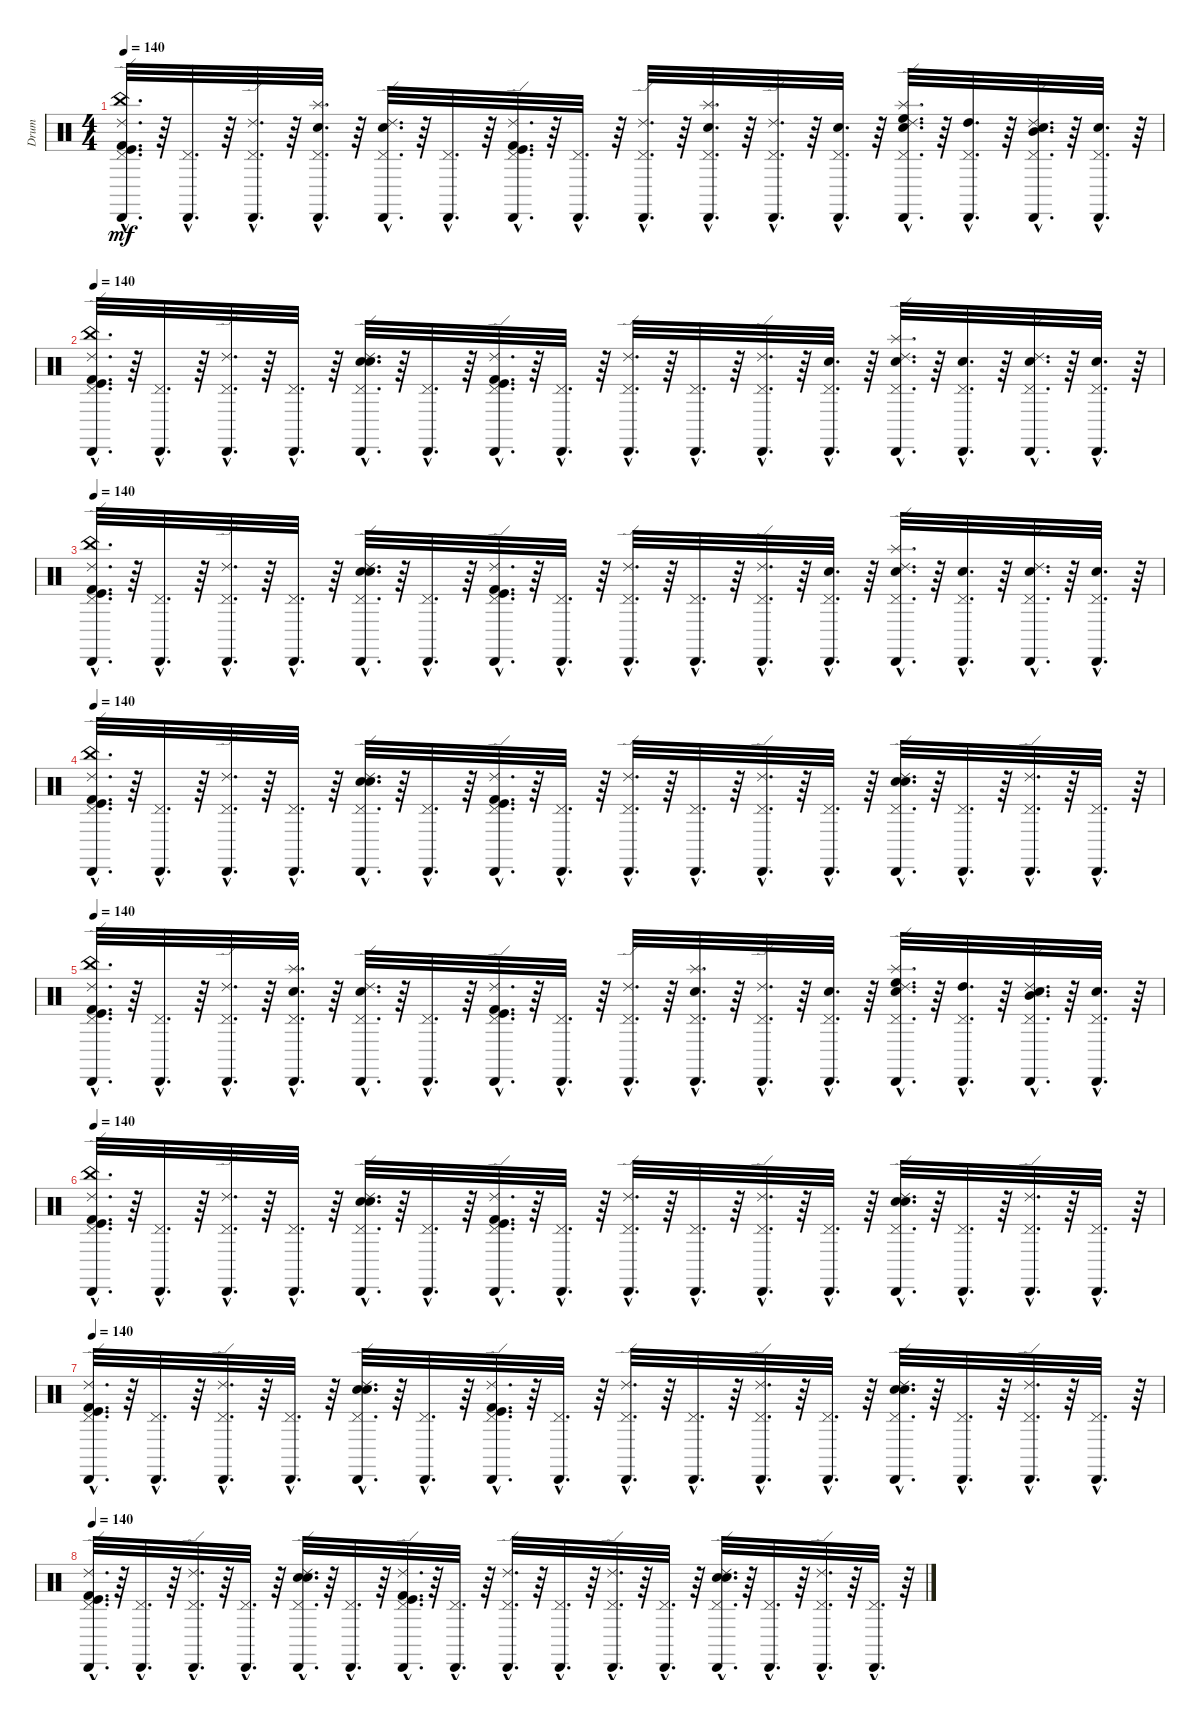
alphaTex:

\track ("Drum" "Drum") {instrument percussion}
\staff {score}
\articulation defaults
\ts (4 4)
\tempo 140
\clef neutral
\ks c
("China (hit)"{hac} "Cabasa (hit)"{hac} "Ride (edge) 2"{hac} "Kick (hit) 2"{hac} "Kick (hit)"{hac} "Pedal Hi-Hat (hit)"{hac}).32{d dy mf} r.64 ("Pedal Hi-Hat (hit)"{hac} "Cabasa (hit)"{hac}).32{d} r.64 ("Ride (edge) 2"{hac} "Cabasa (hit)"{hac} "Pedal Hi-Hat (hit)"{hac}).32{d} r.64 ("Splash (hit)"{hac} "Snare (hit) 2"{hac} "Pedal Hi-Hat (hit)"{hac} "Cabasa (hit)"{hac}).32{d} r.64 ("Snare (hit) 2"{hac} "Ride (edge) 2"{hac} "Cabasa (hit)"{hac} "Pedal Hi-Hat (hit)"{hac}).32{d} r.64 ("Cabasa (hit)"{hac} "Pedal Hi-Hat (hit)"{hac}).32{d} r.64 ("Ride (edge) 2"{hac} "Cabasa (hit)"{hac} "Kick (hit)"{hac} "Kick (hit) 2"{hac} "Pedal Hi-Hat (hit)"{hac}).32{d} r.64 ("Pedal Hi-Hat (hit)"{hac} "Cabasa (hit)"{hac}).32{d} r.64 ("Cabasa (hit)"{hac} "Pedal Hi-Hat (hit)"{hac} "Ride (edge) 2"{hac}).32{d} r.64 ("Splash (hit)"{hac} "Snare (hit) 2"{hac} "Pedal Hi-Hat (hit)"{hac} "Cabasa (hit)"{hac}).32{d} r.64 ("Pedal Hi-Hat (hit)"{hac} "Cabasa (hit)"{hac} "Ride (edge) 2"{hac}).32{d} r.64 ("Snare (hit) 2"{hac} "Pedal Hi-Hat (hit)"{hac} "Cabasa (hit)"{hac}).32{d} r.64 ("Splash (hit)"{hac} "High Floor Tom (hit)"{hac} "Snare (hit) 2"{hac} "Ride (edge) 2"{hac} "Cabasa (hit)"{hac} "Pedal Hi-Hat (hit)"{hac}).32{d} r.64 ("High Tom (hit)"{hac} "Pedal Hi-Hat (hit)"{hac} "Cabasa (hit)"{hac}).32{d} r.64 ("Mid Tom (hit)"{hac} "Snare (hit) 2"{hac} "Ride (edge) 2"{hac} "Cabasa (hit)"{hac} "Pedal Hi-Hat (hit)"{hac}).32{d} r.64 ("Snare (hit) 2"{hac} "Pedal Hi-Hat (hit)"{hac} "Cabasa (hit)"{hac}).32{d} r.64 |
\tempo 140
("China (hit)"{hac} "Cabasa (hit)"{hac} "Pedal Hi-Hat (hit)"{hac} "Ride (edge) 2"{hac} "Kick (hit) 2"{hac} "Kick (hit)"{hac}).32{d} r.64 ("Cabasa (hit)"{hac} "Pedal Hi-Hat (hit)"{hac}).32{d} r.64 ("Pedal Hi-Hat (hit)"{hac} "Ride (edge) 2"{hac} "Cabasa (hit)"{hac}).32{d} r.64 ("Pedal Hi-Hat (hit)"{hac} "Cabasa (hit)"{hac}).32{d} r.64 ("Pedal Hi-Hat (hit)"{hac} "Ride (edge) 2"{hac} "Snare (hit) 2"{hac} "Cabasa (hit)"{hac} "Electric Snare (hit)"{hac}).32{d} r.64 ("Pedal Hi-Hat (hit)"{hac} "Cabasa (hit)"{hac}).32{d} r.64 ("Kick (hit)"{hac} "Pedal Hi-Hat (hit)"{hac} "Kick (hit) 2"{hac} "Cabasa (hit)"{hac} "Ride (edge) 2"{hac}).32{d} r.64 ("Pedal Hi-Hat (hit)"{hac} "Cabasa (hit)"{hac}).32{d} r.64 ("Cabasa (hit)"{hac} "Ride (edge) 2"{hac} "Pedal Hi-Hat (hit)"{hac}).32{d} r.64 ("Cabasa (hit)"{hac} "Pedal Hi-Hat (hit)"{hac}).32{d} r.64 ("Ride (edge) 2"{hac} "Pedal Hi-Hat (hit)"{hac} "Cabasa (hit)"{hac}).32{d} r.64 ("Snare (hit) 2"{hac} "Cabasa (hit)"{hac} "Pedal Hi-Hat (hit)"{hac}).32{d} r.64 ("Ride (edge) 2"{hac} "Pedal Hi-Hat (hit)"{hac} "Cabasa (hit)"{hac} "Snare (hit) 2"{hac} "Splash (hit)"{hac}).32{d} r.64 ("Snare (hit) 2"{hac} "Pedal Hi-Hat (hit)"{hac} "Cabasa (hit)"{hac}).32{d} r.64 ("Snare (hit) 2"{hac} "Pedal Hi-Hat (hit)"{hac} "Cabasa (hit)"{hac} "Ride (edge) 2"{hac}).32{d} r.64 ("Snare (hit) 2"{hac} "Pedal Hi-Hat (hit)"{hac} "Cabasa (hit)"{hac}).32{d} r.64 |
\tempo 140
("Pedal Hi-Hat (hit)"{hac} "Kick (hit) 2"{hac} "Ride (edge) 2"{hac} "Kick (hit)"{hac} "Cabasa (hit)"{hac} "China (hit)"{hac}).32{d} r.64 ("Cabasa (hit)"{hac} "Pedal Hi-Hat (hit)"{hac}).32{d} r.64 ("Ride (edge) 2"{hac} "Pedal Hi-Hat (hit)"{hac} "Cabasa (hit)"{hac}).32{d} r.64 ("Cabasa (hit)"{hac} "Pedal Hi-Hat (hit)"{hac}).32{d} r.64 ("Pedal Hi-Hat (hit)"{hac} "Snare (hit) 2"{hac} "Cabasa (hit)"{hac} "Electric Snare (hit)"{hac} "Ride (edge) 2"{hac}).32{d} r.64 ("Cabasa (hit)"{hac} "Pedal Hi-Hat (hit)"{hac}).32{d} r.64 ("Kick (hit) 2"{hac} "Pedal Hi-Hat (hit)"{hac} "Cabasa (hit)"{hac} "Kick (hit)"{hac} "Ride (edge) 2"{hac}).32{d} r.64 ("Cabasa (hit)"{hac} "Pedal Hi-Hat (hit)"{hac}).32{d} r.64 ("Cabasa (hit)"{hac} "Pedal Hi-Hat (hit)"{hac} "Ride (edge) 2"{hac}).32{d} r.64 ("Pedal Hi-Hat (hit)"{hac} "Cabasa (hit)"{hac}).32{d} r.64 ("Cabasa (hit)"{hac} "Ride (edge) 2"{hac} "Pedal Hi-Hat (hit)"{hac}).32{d} r.64 ("Snare (hit) 2"{hac} "Pedal Hi-Hat (hit)"{hac} "Cabasa (hit)"{hac}).32{d} r.64 ("Pedal Hi-Hat (hit)"{hac} "Ride (edge) 2"{hac} "Cabasa (hit)"{hac} "Snare (hit) 2"{hac} "Splash (hit)"{hac}).32{d} r.64 ("Snare (hit) 2"{hac} "Cabasa (hit)"{hac} "Pedal Hi-Hat (hit)"{hac}).32{d} r.64 ("Ride (edge) 2"{hac} "Snare (hit) 2"{hac} "Cabasa (hit)"{hac} "Pedal Hi-Hat (hit)"{hac}).32{d} r.64 ("Snare (hit) 2"{hac} "Cabasa (hit)"{hac} "Pedal Hi-Hat (hit)"{hac}).32{d} r.64 |
\tempo 140
("Cabasa (hit)"{hac} "Pedal Hi-Hat (hit)"{hac} "Ride (edge) 2"{hac} "Kick (hit) 2"{hac} "Kick (hit)"{hac} "China (hit)"{hac}).32{d} r.64 ("Pedal Hi-Hat (hit)"{hac} "Cabasa (hit)"{hac}).32{d} r.64 ("Pedal Hi-Hat (hit)"{hac} "Cabasa (hit)"{hac} "Ride (edge) 2"{hac}).32{d} r.64 ("Pedal Hi-Hat (hit)"{hac} "Cabasa (hit)"{hac}).32{d} r.64 ("Cabasa (hit)"{hac} "Pedal Hi-Hat (hit)"{hac} "Ride (edge) 2"{hac} "Snare (hit) 2"{hac} "Electric Snare (hit)"{hac}).32{d} r.64 ("Pedal Hi-Hat (hit)"{hac} "Cabasa (hit)"{hac}).32{d} r.64 ("Kick (hit) 2"{hac} "Cabasa (hit)"{hac} "Ride (edge) 2"{hac} "Kick (hit)"{hac} "Pedal Hi-Hat (hit)"{hac}).32{d} r.64 ("Pedal Hi-Hat (hit)"{hac} "Cabasa (hit)"{hac}).32{d} r.64 ("Pedal Hi-Hat (hit)"{hac} "Ride (edge) 2"{hac} "Cabasa (hit)"{hac}).32{d} r.64 ("Pedal Hi-Hat (hit)"{hac} "Cabasa (hit)"{hac}).32{d} r.64 ("Pedal Hi-Hat (hit)"{hac} "Cabasa (hit)"{hac} "Ride (edge) 2"{hac}).32{d} r.64 ("Pedal Hi-Hat (hit)"{hac} "Cabasa (hit)"{hac}).32{d} r.64 ("Ride (edge) 2"{hac} "Cabasa (hit)"{hac} "Pedal Hi-Hat (hit)"{hac} "Snare (hit) 2"{hac} "Electric Snare (hit)"{hac}).32{d} r.64 ("Pedal Hi-Hat (hit)"{hac} "Cabasa (hit)"{hac}).32{d} r.64 ("Pedal Hi-Hat (hit)"{hac} "Cabasa (hit)"{hac} "Ride (edge) 2"{hac}).32{d} r.64 ("Pedal Hi-Hat (hit)"{hac} "Cabasa (hit)"{hac}).32{d} r.64 |
\tempo 140
("Pedal Hi-Hat (hit)"{hac} "Kick (hit)"{hac} "Kick (hit) 2"{hac} "Ride (edge) 2"{hac} "Cabasa (hit)"{hac} "China (hit)"{hac}).32{d} r.64 ("Cabasa (hit)"{hac} "Pedal Hi-Hat (hit)"{hac}).32{d} r.64 ("Pedal Hi-Hat (hit)"{hac} "Cabasa (hit)"{hac} "Ride (edge) 2"{hac}).32{d} r.64 ("Cabasa (hit)"{hac} "Pedal Hi-Hat (hit)"{hac} "Snare (hit) 2"{hac} "Splash (hit)"{hac}).32{d} r.64 ("Pedal Hi-Hat (hit)"{hac} "Cabasa (hit)"{hac} "Ride (edge) 2"{hac} "Snare (hit) 2"{hac}).32{d} r.64 ("Pedal Hi-Hat (hit)"{hac} "Cabasa (hit)"{hac}).32{d} r.64 ("Pedal Hi-Hat (hit)"{hac} "Kick (hit) 2"{hac} "Kick (hit)"{hac} "Cabasa (hit)"{hac} "Ride (edge) 2"{hac}).32{d} r.64 ("Cabasa (hit)"{hac} "Pedal Hi-Hat (hit)"{hac}).32{d} r.64 ("Ride (edge) 2"{hac} "Pedal Hi-Hat (hit)"{hac} "Cabasa (hit)"{hac}).32{d} r.64 ("Cabasa (hit)"{hac} "Pedal Hi-Hat (hit)"{hac} "Snare (hit) 2"{hac} "Splash (hit)"{hac}).32{d} r.64 ("Ride (edge) 2"{hac} "Cabasa (hit)"{hac} "Pedal Hi-Hat (hit)"{hac}).32{d} r.64 ("Cabasa (hit)"{hac} "Pedal Hi-Hat (hit)"{hac} "Snare (hit) 2"{hac}).32{d} r.64 ("Pedal Hi-Hat (hit)"{hac} "Cabasa (hit)"{hac} "Ride (edge) 2"{hac} "Snare (hit) 2"{hac} "High Floor Tom (hit)"{hac} "Splash (hit)"{hac}).32{d} r.64 ("Cabasa (hit)"{hac} "Pedal Hi-Hat (hit)"{hac} "High Tom (hit)"{hac}).32{d} r.64 ("Pedal Hi-Hat (hit)"{hac} "Cabasa (hit)"{hac} "Ride (edge) 2"{hac} "Snare (hit) 2"{hac} "Mid Tom (hit)"{hac}).32{d} r.64 ("Cabasa (hit)"{hac} "Pedal Hi-Hat (hit)"{hac} "Snare (hit) 2"{hac}).32{d} r.64 |
\tempo 140
("China (hit)"{hac} "Kick (hit) 2"{hac} "Kick (hit)"{hac} "Ride (edge) 2"{hac} "Cabasa (hit)"{hac} "Pedal Hi-Hat (hit)"{hac}).32{d} r.64 ("Cabasa (hit)"{hac} "Pedal Hi-Hat (hit)"{hac}).32{d} r.64 ("Ride (edge) 2"{hac} "Cabasa (hit)"{hac} "Pedal Hi-Hat (hit)"{hac}).32{d} r.64 ("Cabasa (hit)"{hac} "Pedal Hi-Hat (hit)"{hac}).32{d} r.64 ("Snare (hit) 2"{hac} "Electric Snare (hit)"{hac} "Ride (edge) 2"{hac} "Cabasa (hit)"{hac} "Pedal Hi-Hat (hit)"{hac}).32{d} r.64 ("Cabasa (hit)"{hac} "Pedal Hi-Hat (hit)"{hac}).32{d} r.64 ("Kick (hit)"{hac} "Kick (hit) 2"{hac} "Ride (edge) 2"{hac} "Cabasa (hit)"{hac} "Pedal Hi-Hat (hit)"{hac}).32{d} r.64 ("Cabasa (hit)"{hac} "Pedal Hi-Hat (hit)"{hac}).32{d} r.64 ("Ride (edge) 2"{hac} "Cabasa (hit)"{hac} "Pedal Hi-Hat (hit)"{hac}).32{d} r.64 ("Cabasa (hit)"{hac} "Pedal Hi-Hat (hit)"{hac}).32{d} r.64 ("Ride (edge) 2"{hac} "Cabasa (hit)"{hac} "Pedal Hi-Hat (hit)"{hac}).32{d} r.64 ("Cabasa (hit)"{hac} "Pedal Hi-Hat (hit)"{hac}).32{d} r.64 ("Electric Snare (hit)"{hac} "Snare (hit) 2"{hac} "Ride (edge) 2"{hac} "Cabasa (hit)"{hac} "Pedal Hi-Hat (hit)"{hac}).32{d} r.64 ("Cabasa (hit)"{hac} "Pedal Hi-Hat (hit)"{hac}).32{d} r.64 ("Ride (edge) 2"{hac} "Cabasa (hit)"{hac} "Pedal Hi-Hat (hit)"{hac}).32{d} r.64 ("Cabasa (hit)"{hac} "Pedal Hi-Hat (hit)"{hac}).32{d} r.64 |
\tempo 140
("Pedal Hi-Hat (hit)"{hac} "Cabasa (hit)"{hac} "Ride (edge) 2"{hac} "Kick (hit)"{hac} "Kick (hit) 2"{hac}).32{d} r.64 ("Pedal Hi-Hat (hit)"{hac} "Cabasa (hit)"{hac}).32{d} r.64 ("Pedal Hi-Hat (hit)"{hac} "Cabasa (hit)"{hac} "Ride (edge) 2"{hac}).32{d} r.64 ("Pedal Hi-Hat (hit)"{hac} "Cabasa (hit)"{hac}).32{d} r.64 ("Pedal Hi-Hat (hit)"{hac} "Cabasa (hit)"{hac} "Ride (edge) 2"{hac} "Electric Snare (hit)"{hac} "Snare (hit) 2"{hac}).32{d} r.64 ("Pedal Hi-Hat (hit)"{hac} "Cabasa (hit)"{hac}).32{d} r.64 ("Pedal Hi-Hat (hit)"{hac} "Cabasa (hit)"{hac} "Ride (edge) 2"{hac} "Kick (hit) 2"{hac} "Kick (hit)"{hac}).32{d} r.64 ("Pedal Hi-Hat (hit)"{hac} "Cabasa (hit)"{hac}).32{d} r.64 ("Pedal Hi-Hat (hit)"{hac} "Cabasa (hit)"{hac} "Ride (edge) 2"{hac}).32{d} r.64 ("Pedal Hi-Hat (hit)"{hac} "Cabasa (hit)"{hac}).32{d} r.64 ("Pedal Hi-Hat (hit)"{hac} "Cabasa (hit)"{hac} "Ride (edge) 2"{hac}).32{d} r.64 ("Pedal Hi-Hat (hit)"{hac} "Cabasa (hit)"{hac}).32{d} r.64 ("Pedal Hi-Hat (hit)"{hac} "Cabasa (hit)"{hac} "Ride (edge) 2"{hac} "Snare (hit) 2"{hac} "Electric Snare (hit)"{hac}).32{d} r.64 ("Pedal Hi-Hat (hit)"{hac} "Cabasa (hit)"{hac}).32{d} r.64 ("Pedal Hi-Hat (hit)"{hac} "Cabasa (hit)"{hac} "Ride (edge) 2"{hac}).32{d} r.64 ("Pedal Hi-Hat (hit)"{hac} "Cabasa (hit)"{hac}).32{d} r.64 |
\tempo 140
("Kick (hit) 2"{hac} "Kick (hit)"{hac} "Ride (edge) 2"{hac} "Cabasa (hit)"{hac} "Pedal Hi-Hat (hit)"{hac}).32{d} r.64 ("Cabasa (hit)"{hac} "Pedal Hi-Hat (hit)"{hac}).32{d} r.64 ("Ride (edge) 2"{hac} "Cabasa (hit)"{hac} "Pedal Hi-Hat (hit)"{hac}).32{d} r.64 ("Cabasa (hit)"{hac} "Pedal Hi-Hat (hit)"{hac}).32{d} r.64 ("Snare (hit) 2"{hac} "Electric Snare (hit)"{hac} "Ride (edge) 2"{hac} "Cabasa (hit)"{hac} "Pedal Hi-Hat (hit)"{hac}).32{d} r.64 ("Cabasa (hit)"{hac} "Pedal Hi-Hat (hit)"{hac}).32{d} r.64 ("Kick (hit)"{hac} "Kick (hit) 2"{hac} "Ride (edge) 2"{hac} "Cabasa (hit)"{hac} "Pedal Hi-Hat (hit)"{hac}).32{d} r.64 ("Cabasa (hit)"{hac} "Pedal Hi-Hat (hit)"{hac}).32{d} r.64 ("Ride (edge) 2"{hac} "Cabasa (hit)"{hac} "Pedal Hi-Hat (hit)"{hac}).32{d} r.64 ("Cabasa (hit)"{hac} "Pedal Hi-Hat (hit)"{hac}).32{d} r.64 ("Ride (edge) 2"{hac} "Cabasa (hit)"{hac} "Pedal Hi-Hat (hit)"{hac}).32{d} r.64 ("Cabasa (hit)"{hac} "Pedal Hi-Hat (hit)"{hac}).32{d} r.64 ("Electric Snare (hit)"{hac} "Snare (hit) 2"{hac} "Ride (edge) 2"{hac} "Cabasa (hit)"{hac} "Pedal Hi-Hat (hit)"{hac}).32{d} r.64 ("Cabasa (hit)"{hac} "Pedal Hi-Hat (hit)"{hac}).32{d} r.64 ("Ride (edge) 2"{hac} "Cabasa (hit)"{hac} "Pedal Hi-Hat (hit)"{hac}).32{d} r.64 ("Cabasa (hit)"{hac} "Pedal Hi-Hat (hit)"{hac}).32{d} r.64
